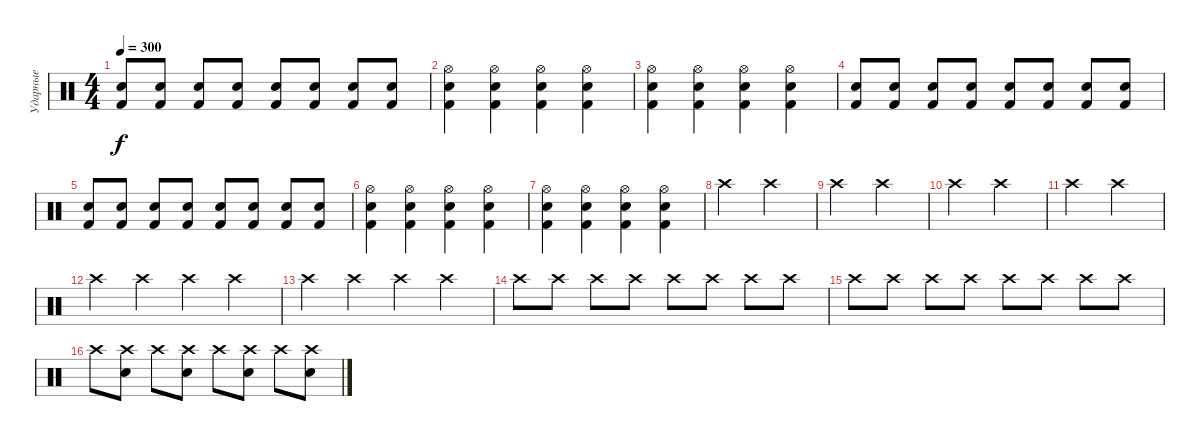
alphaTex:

\track ("Ударные" "Ударные") {instrument percussion}
\staff {score}
\articulation defaults
\ts (4 4)
\tempo 300
\clef neutral
\ks c
("Kick (hit) 2" "Electric Snare (hit)").8{dy f} ("Kick (hit) 2" "Electric Snare (hit)").8 ("Kick (hit) 2" "Electric Snare (hit)").8 ("Kick (hit) 2" "Electric Snare (hit)").8 ("Kick (hit) 2" "Electric Snare (hit)").8 ("Kick (hit) 2" "Electric Snare (hit)").8 ("Kick (hit) 2" "Electric Snare (hit)").8 ("Kick (hit) 2" "Electric Snare (hit)").8 |
("Hi-Hat (open)" "Electric Snare (hit)" "Kick (hit) 2").4 ("Hi-Hat (open)" "Electric Snare (hit)" "Kick (hit) 2").4 ("Hi-Hat (open)" "Electric Snare (hit)" "Kick (hit) 2").4 ("Hi-Hat (open)" "Electric Snare (hit)" "Kick (hit) 2").4 |
("Hi-Hat (open)" "Electric Snare (hit)" "Kick (hit) 2").4 ("Hi-Hat (open)" "Electric Snare (hit)" "Kick (hit) 2").4 ("Hi-Hat (open)" "Electric Snare (hit)" "Kick (hit) 2").4 ("Hi-Hat (open)" "Electric Snare (hit)" "Kick (hit) 2").4 |
("Kick (hit) 2" "Electric Snare (hit)").8 ("Kick (hit) 2" "Electric Snare (hit)").8 ("Kick (hit) 2" "Electric Snare (hit)").8 ("Kick (hit) 2" "Electric Snare (hit)").8 ("Kick (hit) 2" "Electric Snare (hit)").8 ("Kick (hit) 2" "Electric Snare (hit)").8 ("Kick (hit) 2" "Electric Snare (hit)").8 ("Kick (hit) 2" "Electric Snare (hit)").8 |
("Kick (hit) 2" "Electric Snare (hit)").8 ("Kick (hit) 2" "Electric Snare (hit)").8 ("Kick (hit) 2" "Electric Snare (hit)").8 ("Kick (hit) 2" "Electric Snare (hit)").8 ("Kick (hit) 2" "Electric Snare (hit)").8 ("Kick (hit) 2" "Electric Snare (hit)").8 ("Kick (hit) 2" "Electric Snare (hit)").8 ("Kick (hit) 2" "Electric Snare (hit)").8 |
("Hi-Hat (open)" "Electric Snare (hit)" "Kick (hit) 2").4 ("Hi-Hat (open)" "Electric Snare (hit)" "Kick (hit) 2").4 ("Hi-Hat (open)" "Electric Snare (hit)" "Kick (hit) 2").4 ("Hi-Hat (open)" "Electric Snare (hit)" "Kick (hit) 2").4 |
("Hi-Hat (open)" "Electric Snare (hit)" "Kick (hit) 2").4 ("Hi-Hat (open)" "Electric Snare (hit)" "Kick (hit) 2").4 ("Hi-Hat (open)" "Electric Snare (hit)" "Kick (hit) 2").4 ("Hi-Hat (open)" "Electric Snare (hit)" "Kick (hit) 2").4 |
"Crash high (hit)".2 "Crash high (hit)".2 |
"Crash high (hit)".2 "Crash high (hit)".2 |
"Crash high (hit)".2 "Crash high (hit)".2 |
"Crash high (hit)".2 "Crash high (hit)".2 |
"Crash high (hit)".4 "Crash high (hit)".4 "Crash high (hit)".4 "Crash high (hit)".4 |
"Crash high (hit)".4 "Crash high (hit)".4 "Crash high (hit)".4 "Crash high (hit)".4 |
"Crash high (hit)".8 "Crash high (hit)".8 "Crash high (hit)".8 "Crash high (hit)".8 "Crash high (hit)".8 "Crash high (hit)".8 "Crash high (hit)".8 "Crash high (hit)".8 |
"Crash high (hit)".8 "Crash high (hit)".8 "Crash high (hit)".8 "Crash high (hit)".8 "Crash high (hit)".8 "Crash high (hit)".8 "Crash high (hit)".8 "Crash high (hit)".8 |
"Crash high (hit)".8 ("Crash high (hit)" "Electric Snare (hit)").8 "Crash high (hit)".8 ("Crash high (hit)" "Electric Snare (hit)").8 "Crash high (hit)".8 ("Crash high (hit)" "Electric Snare (hit)").8 "Crash high (hit)".8 ("Crash high (hit)" "Electric Snare (hit)").8
